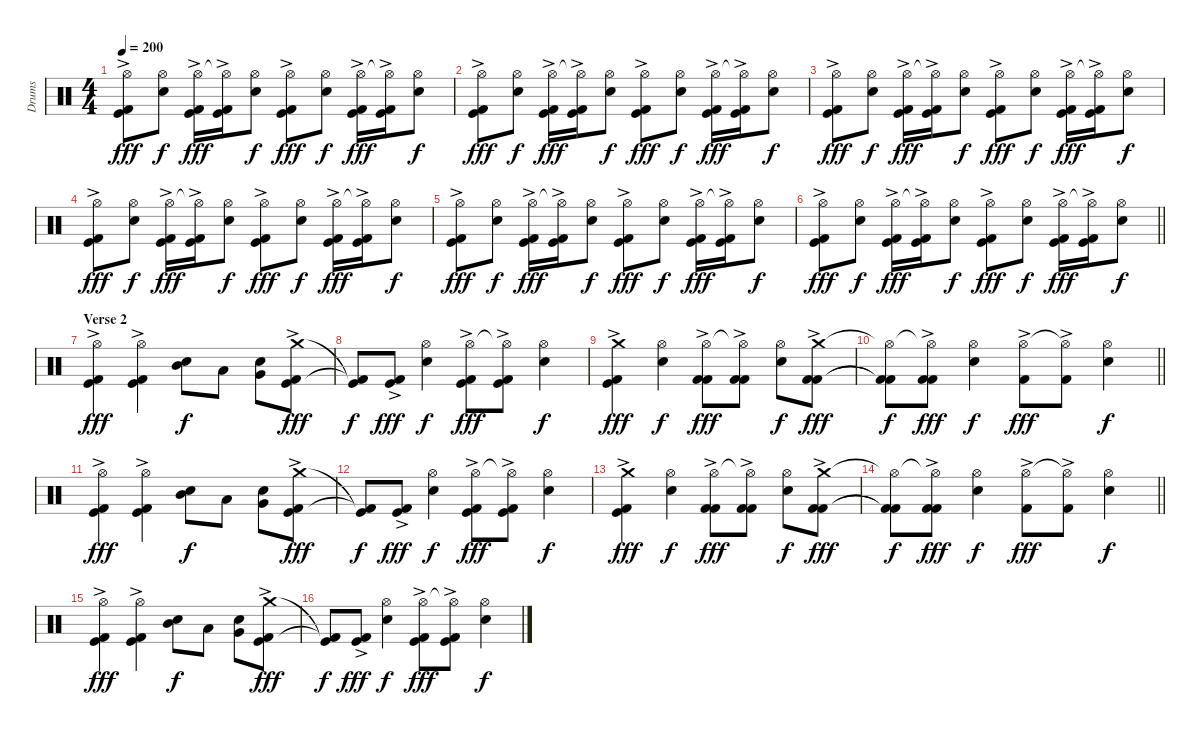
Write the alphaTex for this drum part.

\track ("Drums" "Drums") {instrument percussion}
\staff {score}
\articulation defaults
\ts (4 4)
\tempo 200
\clef neutral
\ks c
("Hi-Hat (open)" "Kick (hit)" "Kick (hit) 2"{ac}).8{dy fff} ("Hi-Hat (open)" "Electric Snare (hit)").8{dy f} ("Hi-Hat (open)" "Kick (hit)" "Kick (hit) 2"{ac}).16{dy fff} ("Hi-Hat (open)"{t} "Kick (hit)" "Kick (hit) 2"{ac}).16 ("Hi-Hat (open)" "Electric Snare (hit)").8{dy f} ("Hi-Hat (open)" "Kick (hit)" "Kick (hit) 2"{ac}).8{dy fff} ("Hi-Hat (open)" "Electric Snare (hit)").8{dy f} ("Hi-Hat (open)" "Kick (hit)" "Kick (hit) 2"{ac}).16{dy fff} ("Hi-Hat (open)"{t} "Kick (hit)" "Kick (hit) 2"{ac}).16 ("Hi-Hat (open)" "Electric Snare (hit)").8{dy f} |
("Hi-Hat (open)" "Kick (hit)" "Kick (hit) 2"{ac}).8{dy fff} ("Hi-Hat (open)" "Electric Snare (hit)").8{dy f} ("Hi-Hat (open)" "Kick (hit)" "Kick (hit) 2"{ac}).16{dy fff} ("Hi-Hat (open)"{t} "Kick (hit)" "Kick (hit) 2"{ac}).16 ("Hi-Hat (open)" "Electric Snare (hit)").8{dy f} ("Hi-Hat (open)" "Kick (hit)" "Kick (hit) 2"{ac}).8{dy fff} ("Hi-Hat (open)" "Electric Snare (hit)").8{dy f} ("Hi-Hat (open)" "Kick (hit)" "Kick (hit) 2"{ac}).16{dy fff} ("Hi-Hat (open)"{t} "Kick (hit)" "Kick (hit) 2"{ac}).16 ("Hi-Hat (open)" "Electric Snare (hit)").8{dy f} |
("Hi-Hat (open)" "Kick (hit)" "Kick (hit) 2"{ac}).8{dy fff} ("Hi-Hat (open)" "Electric Snare (hit)").8{dy f} ("Hi-Hat (open)" "Kick (hit)" "Kick (hit) 2"{ac}).16{dy fff} ("Hi-Hat (open)"{t} "Kick (hit)" "Kick (hit) 2"{ac}).16 ("Hi-Hat (open)" "Electric Snare (hit)").8{dy f} ("Hi-Hat (open)" "Kick (hit)" "Kick (hit) 2"{ac}).8{dy fff} ("Hi-Hat (open)" "Electric Snare (hit)").8{dy f} ("Hi-Hat (open)" "Kick (hit)" "Kick (hit) 2"{ac}).16{dy fff} ("Hi-Hat (open)"{t} "Kick (hit)" "Kick (hit) 2"{ac}).16 ("Hi-Hat (open)" "Electric Snare (hit)").8{dy f} |
("Hi-Hat (open)" "Kick (hit)" "Kick (hit) 2"{ac}).8{dy fff} ("Hi-Hat (open)" "Electric Snare (hit)").8{dy f} ("Hi-Hat (open)" "Kick (hit)" "Kick (hit) 2"{ac}).16{dy fff} ("Hi-Hat (open)"{t} "Kick (hit)" "Kick (hit) 2"{ac}).16 ("Hi-Hat (open)" "Electric Snare (hit)").8{dy f} ("Hi-Hat (open)" "Kick (hit)" "Kick (hit) 2"{ac}).8{dy fff} ("Hi-Hat (open)" "Electric Snare (hit)").8{dy f} ("Hi-Hat (open)" "Kick (hit)" "Kick (hit) 2"{ac}).16{dy fff} ("Hi-Hat (open)"{t} "Kick (hit)" "Kick (hit) 2"{ac}).16 ("Hi-Hat (open)" "Electric Snare (hit)").8{dy f} |
("Hi-Hat (open)" "Kick (hit)" "Kick (hit) 2"{ac}).8{dy fff} ("Hi-Hat (open)" "Electric Snare (hit)").8{dy f} ("Hi-Hat (open)" "Kick (hit)" "Kick (hit) 2"{ac}).16{dy fff} ("Hi-Hat (open)"{t} "Kick (hit)" "Kick (hit) 2"{ac}).16 ("Hi-Hat (open)" "Electric Snare (hit)").8{dy f} ("Hi-Hat (open)" "Kick (hit)" "Kick (hit) 2"{ac}).8{dy fff} ("Hi-Hat (open)" "Electric Snare (hit)").8{dy f} ("Hi-Hat (open)" "Kick (hit)" "Kick (hit) 2"{ac}).16{dy fff} ("Hi-Hat (open)"{t} "Kick (hit)" "Kick (hit) 2"{ac}).16 ("Hi-Hat (open)" "Electric Snare (hit)").8{dy f} |
\barLineRight lightlight
("Hi-Hat (open)" "Kick (hit)" "Kick (hit) 2"{ac}).8{dy fff} ("Hi-Hat (open)" "Electric Snare (hit)").8{dy f} ("Hi-Hat (open)" "Kick (hit)" "Kick (hit) 2"{ac}).16{dy fff} ("Hi-Hat (open)"{t} "Kick (hit)" "Kick (hit) 2"{ac}).16 ("Hi-Hat (open)" "Electric Snare (hit)").8{dy f} ("Hi-Hat (open)" "Kick (hit)" "Kick (hit) 2"{ac}).8{dy fff} ("Hi-Hat (open)" "Electric Snare (hit)").8{dy f} ("Hi-Hat (open)" "Kick (hit)" "Kick (hit) 2"{ac}).16{dy fff} ("Hi-Hat (open)"{t} "Kick (hit)" "Kick (hit) 2"{ac}).16 ("Hi-Hat (open)" "Electric Snare (hit)").8{dy f} |
\section ("" "Verse 2")
("Hi-Hat (open)" "Kick (hit)" "Kick (hit) 2"{ac}).4{dy fff} ("Hi-Hat (open)" "Kick (hit)" "Kick (hit) 2"{ac}).4 ("Mid Tom (hit)" "Snare (hit) 2").8{dy f} "Low Tom (hit)".8 ("Very Low Tom (hit)" "Snare (hit) 2").8 ("Crash medium (hit)" "Kick (hit)" "Kick (hit) 2"{ac}).8{dy fff} |
("Kick (hit)"{t} "Kick (hit) 2"{t}).8{dy f} ("Kick (hit)" "Kick (hit) 2"{ac}).8{dy fff} ("Hi-Hat (open)" "Electric Snare (hit)").4{dy f} ("Hi-Hat (open)" "Kick (hit)" "Kick (hit) 2"{ac}).8{dy fff} ("Hi-Hat (open)"{t} "Kick (hit)" "Kick (hit) 2"{ac}).8 ("Hi-Hat (open)" "Electric Snare (hit)").4{dy f} |
("Crash medium (hit)" "Kick (hit)" "Kick (hit) 2"{ac}).4{dy fff} ("Hi-Hat (open)" "Electric Snare (hit)").4{dy f} ("Hi-Hat (open)" "Kick (hit) 2" "Kick (hit) 2"{ac}).8{dy fff} ("Hi-Hat (open)"{t} "Kick (hit) 2" "Kick (hit) 2"{ac}).8 ("Hi-Hat (open)" "Electric Snare (hit)").8{dy f} ("Crash medium (hit)" "Kick (hit) 2" "Kick (hit) 2"{ac}).8{dy fff} |
\barLineRight lightlight
("Hi-Hat (open)"{t} "Kick (hit) 2"{t} "Kick (hit) 2"{t}).8{dy f} ("Hi-Hat (open)"{t} "Kick (hit) 2" "Kick (hit) 2"{ac}).8{dy fff} ("Hi-Hat (open)" "Electric Snare (hit)").4{dy f} ("Hi-Hat (open)" "Kick (hit) 2"{ac}).8{dy fff} ("Hi-Hat (open)"{t} "Kick (hit) 2"{ac}).8 ("Hi-Hat (open)" "Electric Snare (hit)").4{dy f} |
("Hi-Hat (open)" "Kick (hit)" "Kick (hit) 2"{ac}).4{dy fff} ("Hi-Hat (open)" "Kick (hit)" "Kick (hit) 2"{ac}).4 ("Mid Tom (hit)" "Snare (hit) 2").8{dy f} "Low Tom (hit)".8 ("Very Low Tom (hit)" "Snare (hit) 2").8 ("Crash medium (hit)" "Kick (hit)" "Kick (hit) 2"{ac}).8{dy fff} |
("Kick (hit)"{t} "Kick (hit) 2"{t}).8{dy f} ("Kick (hit)" "Kick (hit) 2"{ac}).8{dy fff} ("Hi-Hat (open)" "Electric Snare (hit)").4{dy f} ("Hi-Hat (open)" "Kick (hit)" "Kick (hit) 2"{ac}).8{dy fff} ("Hi-Hat (open)"{t} "Kick (hit)" "Kick (hit) 2"{ac}).8 ("Hi-Hat (open)" "Electric Snare (hit)").4{dy f} |
("Crash medium (hit)" "Kick (hit)" "Kick (hit) 2"{ac}).4{dy fff} ("Hi-Hat (open)" "Electric Snare (hit)").4{dy f} ("Hi-Hat (open)" "Kick (hit) 2" "Kick (hit) 2"{ac}).8{dy fff} ("Hi-Hat (open)"{t} "Kick (hit) 2" "Kick (hit) 2"{ac}).8 ("Hi-Hat (open)" "Electric Snare (hit)").8{dy f} ("Crash medium (hit)" "Kick (hit) 2" "Kick (hit) 2"{ac}).8{dy fff} |
\barLineRight lightlight
("Hi-Hat (open)"{t} "Kick (hit) 2"{t} "Kick (hit) 2"{t}).8{dy f} ("Hi-Hat (open)"{t} "Kick (hit) 2" "Kick (hit) 2"{ac}).8{dy fff} ("Hi-Hat (open)" "Electric Snare (hit)").4{dy f} ("Hi-Hat (open)" "Kick (hit) 2"{ac}).8{dy fff} ("Hi-Hat (open)"{t} "Kick (hit) 2"{ac}).8 ("Hi-Hat (open)" "Electric Snare (hit)").4{dy f} |
("Hi-Hat (open)" "Kick (hit)" "Kick (hit) 2"{ac}).4{dy fff} ("Hi-Hat (open)" "Kick (hit)" "Kick (hit) 2"{ac}).4 ("Mid Tom (hit)" "Snare (hit) 2").8{dy f} "Low Tom (hit)".8 ("Very Low Tom (hit)" "Snare (hit) 2").8 ("Crash medium (hit)" "Kick (hit)" "Kick (hit) 2"{ac}).8{dy fff} |
("Kick (hit)"{t} "Kick (hit) 2"{t}).8{dy f} ("Kick (hit)" "Kick (hit) 2"{ac}).8{dy fff} ("Hi-Hat (open)" "Electric Snare (hit)").4{dy f} ("Hi-Hat (open)" "Kick (hit)" "Kick (hit) 2"{ac}).8{dy fff} ("Hi-Hat (open)"{t} "Kick (hit)" "Kick (hit) 2"{ac}).8 ("Hi-Hat (open)" "Electric Snare (hit)").4{dy f}
